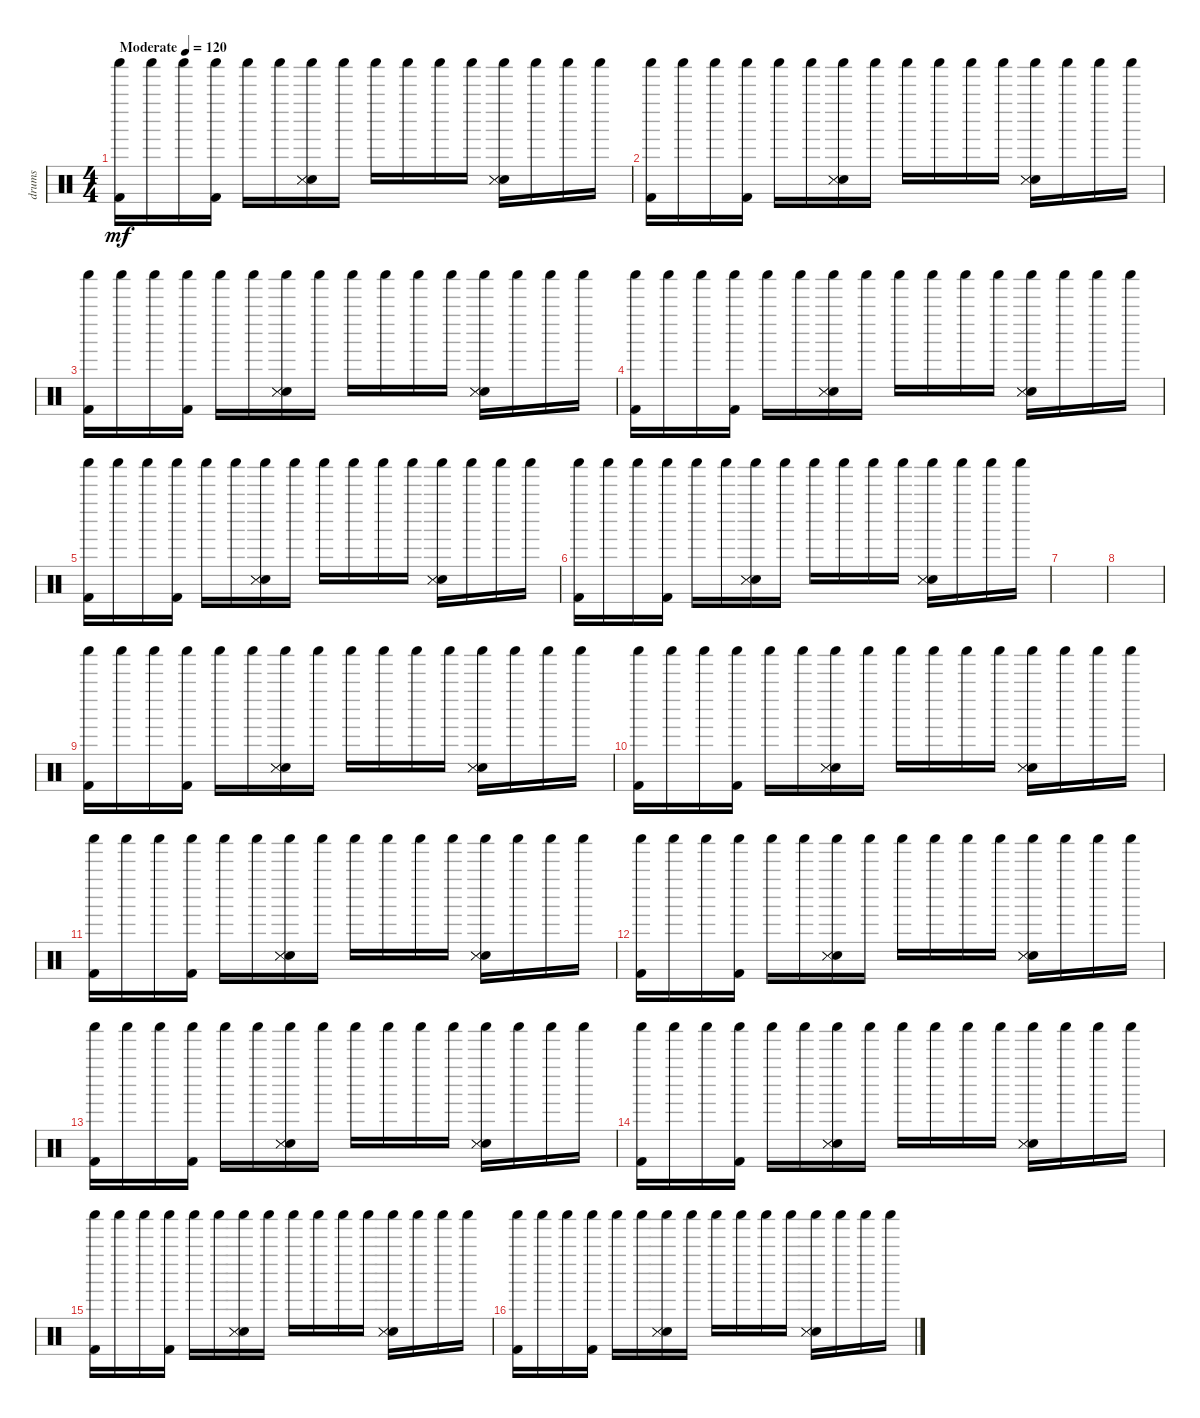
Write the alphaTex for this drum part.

\track ("drums" "drums") {instrument percussion}
\staff {score}
\articulation defaults
\ts (4 4)
\tempo (120 "Moderate")
\clef neutral
\ks c
("Kick (hit) 2" "Shaker (hit)").16{dy mf} "Shaker (hit)".16 "Shaker (hit)".16 ("Kick (hit) 2" "Shaker (hit)").16 "Shaker (hit)".16 "Shaker (hit)".16 ("Electric Snare (hit)" "Snare (side stick) 3" "Snare (side stick) 3" "Shaker (hit)").16 "Shaker (hit)".16 "Shaker (hit)".16 "Shaker (hit)".16 "Shaker (hit)".16 "Shaker (hit)".16 ("Electric Snare (hit)" "Snare (side stick) 3" "Snare (side stick) 3" "Shaker (hit)").16 "Shaker (hit)".16 "Shaker (hit)".16 "Shaker (hit)".16 |
("Kick (hit) 2" "Shaker (hit)").16 "Shaker (hit)".16 "Shaker (hit)".16 ("Kick (hit) 2" "Shaker (hit)").16 "Shaker (hit)".16 "Shaker (hit)".16 ("Electric Snare (hit)" "Snare (side stick) 3" "Snare (side stick) 3" "Shaker (hit)").16 "Shaker (hit)".16 "Shaker (hit)".16 "Shaker (hit)".16 "Shaker (hit)".16 "Shaker (hit)".16 ("Electric Snare (hit)" "Snare (side stick) 3" "Snare (side stick) 3" "Shaker (hit)").16 "Shaker (hit)".16 "Shaker (hit)".16 "Shaker (hit)".16 |
("Kick (hit) 2" "Shaker (hit)").16 "Shaker (hit)".16 "Shaker (hit)".16 ("Kick (hit) 2" "Shaker (hit)").16 "Shaker (hit)".16 "Shaker (hit)".16 ("Electric Snare (hit)" "Snare (side stick) 3" "Snare (side stick) 3" "Shaker (hit)").16 "Shaker (hit)".16 "Shaker (hit)".16 "Shaker (hit)".16 "Shaker (hit)".16 "Shaker (hit)".16 ("Electric Snare (hit)" "Snare (side stick) 3" "Snare (side stick) 3" "Shaker (hit)").16 "Shaker (hit)".16 "Shaker (hit)".16 "Shaker (hit)".16 |
("Kick (hit) 2" "Shaker (hit)").16 "Shaker (hit)".16 "Shaker (hit)".16 ("Kick (hit) 2" "Shaker (hit)").16 "Shaker (hit)".16 "Shaker (hit)".16 ("Electric Snare (hit)" "Snare (side stick) 3" "Snare (side stick) 3" "Shaker (hit)").16 "Shaker (hit)".16 "Shaker (hit)".16 "Shaker (hit)".16 "Shaker (hit)".16 "Shaker (hit)".16 ("Electric Snare (hit)" "Snare (side stick) 3" "Snare (side stick) 3" "Shaker (hit)").16 "Shaker (hit)".16 "Shaker (hit)".16 "Shaker (hit)".16 |
("Kick (hit) 2" "Shaker (hit)").16 "Shaker (hit)".16 "Shaker (hit)".16 ("Kick (hit) 2" "Shaker (hit)").16 "Shaker (hit)".16 "Shaker (hit)".16 ("Electric Snare (hit)" "Snare (side stick) 3" "Snare (side stick) 3" "Shaker (hit)").16 "Shaker (hit)".16 "Shaker (hit)".16 "Shaker (hit)".16 "Shaker (hit)".16 "Shaker (hit)".16 ("Electric Snare (hit)" "Snare (side stick) 3" "Snare (side stick) 3" "Shaker (hit)").16 "Shaker (hit)".16 "Shaker (hit)".16 "Shaker (hit)".16 |
("Kick (hit) 2" "Shaker (hit)").16 "Shaker (hit)".16 "Shaker (hit)".16 ("Kick (hit) 2" "Shaker (hit)").16 "Shaker (hit)".16 "Shaker (hit)".16 ("Electric Snare (hit)" "Snare (side stick) 3" "Snare (side stick) 3" "Shaker (hit)").16 "Shaker (hit)".16 "Shaker (hit)".16 "Shaker (hit)".16 "Shaker (hit)".16 "Shaker (hit)".16 ("Electric Snare (hit)" "Snare (side stick) 3" "Snare (side stick) 3" "Shaker (hit)").16 "Shaker (hit)".16 "Shaker (hit)".16 "Shaker (hit)".16 |
|
|
("Kick (hit) 2" "Shaker (hit)").16 "Shaker (hit)".16 "Shaker (hit)".16 ("Kick (hit) 2" "Shaker (hit)").16 "Shaker (hit)".16 "Shaker (hit)".16 ("Electric Snare (hit)" "Snare (side stick) 3" "Snare (side stick) 3" "Shaker (hit)").16 "Shaker (hit)".16 "Shaker (hit)".16 "Shaker (hit)".16 "Shaker (hit)".16 "Shaker (hit)".16 ("Electric Snare (hit)" "Snare (side stick) 3" "Snare (side stick) 3" "Shaker (hit)").16 "Shaker (hit)".16 "Shaker (hit)".16 "Shaker (hit)".16 |
("Kick (hit) 2" "Shaker (hit)").16 "Shaker (hit)".16 "Shaker (hit)".16 ("Kick (hit) 2" "Shaker (hit)").16 "Shaker (hit)".16 "Shaker (hit)".16 ("Electric Snare (hit)" "Snare (side stick) 3" "Snare (side stick) 3" "Shaker (hit)").16 "Shaker (hit)".16 "Shaker (hit)".16 "Shaker (hit)".16 "Shaker (hit)".16 "Shaker (hit)".16 ("Electric Snare (hit)" "Snare (side stick) 3" "Snare (side stick) 3" "Shaker (hit)").16 "Shaker (hit)".16 "Shaker (hit)".16 "Shaker (hit)".16 |
("Kick (hit) 2" "Shaker (hit)").16 "Shaker (hit)".16 "Shaker (hit)".16 ("Kick (hit) 2" "Shaker (hit)").16 "Shaker (hit)".16 "Shaker (hit)".16 ("Electric Snare (hit)" "Snare (side stick) 3" "Snare (side stick) 3" "Shaker (hit)").16 "Shaker (hit)".16 "Shaker (hit)".16 "Shaker (hit)".16 "Shaker (hit)".16 "Shaker (hit)".16 ("Electric Snare (hit)" "Snare (side stick) 3" "Snare (side stick) 3" "Shaker (hit)").16 "Shaker (hit)".16 "Shaker (hit)".16 "Shaker (hit)".16 |
("Kick (hit) 2" "Shaker (hit)").16 "Shaker (hit)".16 "Shaker (hit)".16 ("Kick (hit) 2" "Shaker (hit)").16 "Shaker (hit)".16 "Shaker (hit)".16 ("Electric Snare (hit)" "Snare (side stick) 3" "Snare (side stick) 3" "Shaker (hit)").16 "Shaker (hit)".16 "Shaker (hit)".16 "Shaker (hit)".16 "Shaker (hit)".16 "Shaker (hit)".16 ("Electric Snare (hit)" "Snare (side stick) 3" "Snare (side stick) 3" "Shaker (hit)").16 "Shaker (hit)".16 "Shaker (hit)".16 "Shaker (hit)".16 |
("Kick (hit) 2" "Shaker (hit)").16 "Shaker (hit)".16 "Shaker (hit)".16 ("Kick (hit) 2" "Shaker (hit)").16 "Shaker (hit)".16 "Shaker (hit)".16 ("Electric Snare (hit)" "Snare (side stick) 3" "Snare (side stick) 3" "Shaker (hit)").16 "Shaker (hit)".16 "Shaker (hit)".16 "Shaker (hit)".16 "Shaker (hit)".16 "Shaker (hit)".16 ("Electric Snare (hit)" "Snare (side stick) 3" "Snare (side stick) 3" "Shaker (hit)").16 "Shaker (hit)".16 "Shaker (hit)".16 "Shaker (hit)".16 |
("Kick (hit) 2" "Shaker (hit)").16 "Shaker (hit)".16 "Shaker (hit)".16 ("Kick (hit) 2" "Shaker (hit)").16 "Shaker (hit)".16 "Shaker (hit)".16 ("Electric Snare (hit)" "Snare (side stick) 3" "Snare (side stick) 3" "Shaker (hit)").16 "Shaker (hit)".16 "Shaker (hit)".16 "Shaker (hit)".16 "Shaker (hit)".16 "Shaker (hit)".16 ("Electric Snare (hit)" "Snare (side stick) 3" "Snare (side stick) 3" "Shaker (hit)").16 "Shaker (hit)".16 "Shaker (hit)".16 "Shaker (hit)".16 |
("Kick (hit) 2" "Shaker (hit)").16 "Shaker (hit)".16 "Shaker (hit)".16 ("Kick (hit) 2" "Shaker (hit)").16 "Shaker (hit)".16 "Shaker (hit)".16 ("Electric Snare (hit)" "Snare (side stick) 3" "Snare (side stick) 3" "Shaker (hit)").16 "Shaker (hit)".16 "Shaker (hit)".16 "Shaker (hit)".16 "Shaker (hit)".16 "Shaker (hit)".16 ("Electric Snare (hit)" "Snare (side stick) 3" "Snare (side stick) 3" "Shaker (hit)").16 "Shaker (hit)".16 "Shaker (hit)".16 "Shaker (hit)".16 |
("Kick (hit) 2" "Shaker (hit)").16 "Shaker (hit)".16 "Shaker (hit)".16 ("Kick (hit) 2" "Shaker (hit)").16 "Shaker (hit)".16 "Shaker (hit)".16 ("Electric Snare (hit)" "Snare (side stick) 3" "Snare (side stick) 3" "Shaker (hit)").16 "Shaker (hit)".16 "Shaker (hit)".16 "Shaker (hit)".16 "Shaker (hit)".16 "Shaker (hit)".16 ("Electric Snare (hit)" "Snare (side stick) 3" "Snare (side stick) 3" "Shaker (hit)").16 "Shaker (hit)".16 "Shaker (hit)".16 "Shaker (hit)".16
